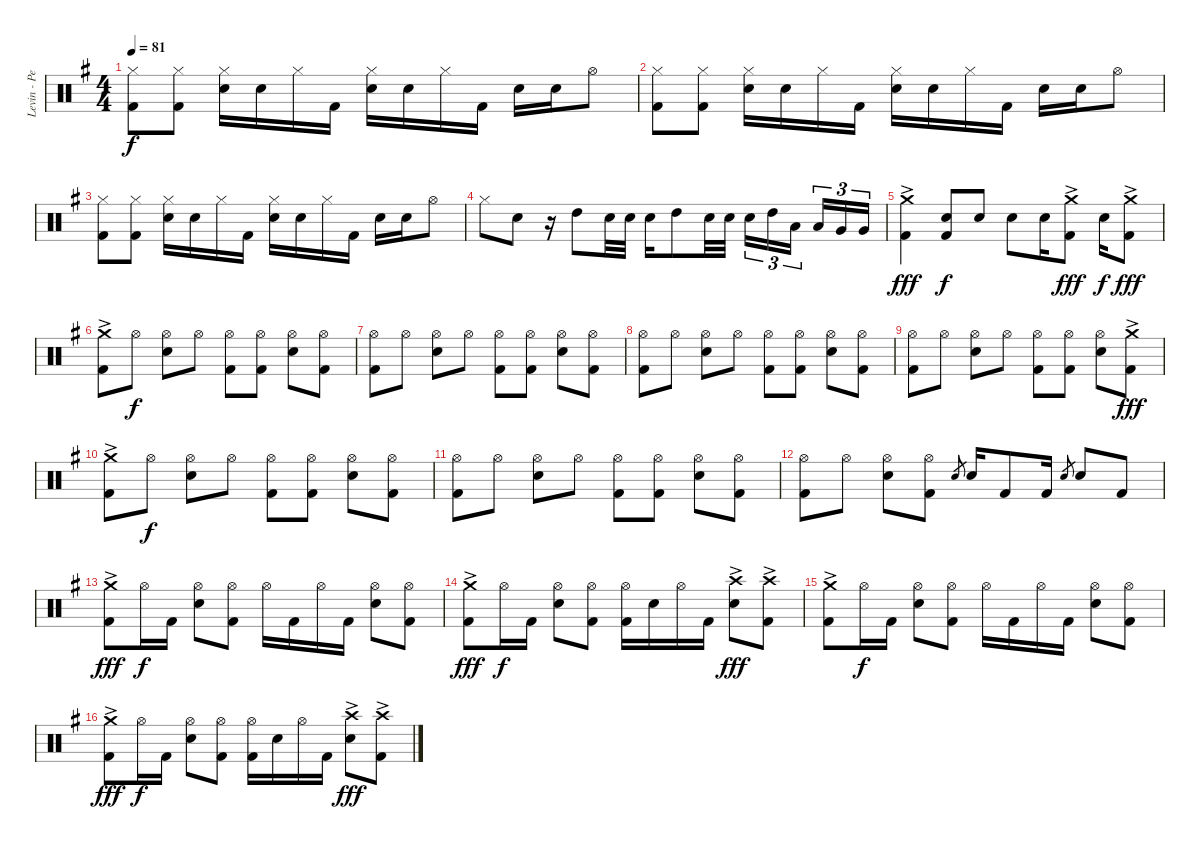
\track ("Levin - Percussion" "Levin - Pe") {instrument percussion}
\staff {score}
\articulation defaults
\ts (4 4)
\tempo 81
\clef neutral
\ks g
("Hi-Hat (closed)" "Kick (hit) 2").8{dy f} ("Hi-Hat (closed)" "Kick (hit) 2").8 ("Hi-Hat (closed)" "Electric Snare (hit)").16 "Electric Snare (hit)".16 "Hi-Hat (closed)".16 "Kick (hit) 2".16 ("Hi-Hat (closed)" "Electric Snare (hit)").16 "Electric Snare (hit)".16 "Hi-Hat (closed)".16 "Kick (hit) 2".16 "Electric Snare (hit)".16 "Electric Snare (hit)".16 "Hi-Hat (open)".8 |
("Hi-Hat (closed)" "Kick (hit) 2").8 ("Hi-Hat (closed)" "Kick (hit) 2").8 ("Hi-Hat (closed)" "Electric Snare (hit)").16 "Electric Snare (hit)".16 "Hi-Hat (closed)".16 "Kick (hit) 2".16 ("Hi-Hat (closed)" "Electric Snare (hit)").16 "Electric Snare (hit)".16 "Hi-Hat (closed)".16 "Kick (hit) 2".16 "Electric Snare (hit)".16 "Electric Snare (hit)".16 "Hi-Hat (open)".8 |
("Hi-Hat (closed)" "Kick (hit) 2").8 ("Hi-Hat (closed)" "Kick (hit) 2").8 ("Hi-Hat (closed)" "Electric Snare (hit)").16 "Electric Snare (hit)".16 "Hi-Hat (closed)".16 "Kick (hit) 2".16 ("Hi-Hat (closed)" "Electric Snare (hit)").16 "Electric Snare (hit)".16 "Hi-Hat (closed)".16 "Kick (hit) 2".16 "Electric Snare (hit)".16 "Electric Snare (hit)".16 "Hi-Hat (open)".8 |
"Hi-Hat (closed)".8 "Electric Snare (hit)".8 r.16 "High Tom (hit)".8 "Electric Snare (hit)".32 "Electric Snare (hit)".32 "Electric Snare (hit)".16 "High Tom (hit)".8 "Electric Snare (hit)".32 "Electric Snare (hit)".32 "Electric Snare (hit)".16{tu (3 2)} "High Tom (hit)".16{tu (3 2)} "Low Tom (hit)".16{tu (3 2)} "Low Tom (hit)".16{tu (3 2)} "Very Low Tom (hit)".16{tu (3 2)} "Very Low Tom (hit)".16{tu (3 2)} |
("Crash medium (hit)"{ac} "Kick (hit) 2").4{dy fff} ("Electric Snare (hit)" "Kick (hit) 2").8{dy f} "Electric Snare (hit)".8 "Electric Snare (hit)".8 "Electric Snare (hit)".16 ("Crash medium (hit)"{ac} "Kick (hit) 2"{ac}).8{dy fff} "Electric Snare (hit)".16{dy f} ("Crash medium (hit)"{ac} "Kick (hit) 2"{ac}).8{dy fff} |
("Crash medium (hit)"{ac} "Kick (hit) 2"{ac}).8 "Hi-Hat (open)".8{dy f} ("Hi-Hat (open)" "Electric Snare (hit)").8 "Hi-Hat (open)".8 ("Hi-Hat (open)" "Kick (hit) 2").8 ("Hi-Hat (open)" "Kick (hit) 2").8 ("Hi-Hat (open)" "Electric Snare (hit)").8 ("Hi-Hat (open)" "Kick (hit) 2").8 |
("Hi-Hat (open)" "Kick (hit) 2").8 "Hi-Hat (open)".8 ("Hi-Hat (open)" "Electric Snare (hit)").8 "Hi-Hat (open)".8 ("Hi-Hat (open)" "Kick (hit) 2").8 ("Hi-Hat (open)" "Kick (hit) 2").8 ("Hi-Hat (open)" "Electric Snare (hit)").8 ("Hi-Hat (open)" "Kick (hit) 2").8 |
("Hi-Hat (open)" "Kick (hit) 2").8 "Hi-Hat (open)".8 ("Hi-Hat (open)" "Electric Snare (hit)").8 "Hi-Hat (open)".8 ("Hi-Hat (open)" "Kick (hit) 2").8 ("Hi-Hat (open)" "Kick (hit) 2").8 ("Hi-Hat (open)" "Electric Snare (hit)").8 ("Hi-Hat (open)" "Kick (hit) 2").8 |
("Hi-Hat (open)" "Kick (hit) 2").8 "Hi-Hat (open)".8 ("Hi-Hat (open)" "Electric Snare (hit)").8 "Hi-Hat (open)".8 ("Hi-Hat (open)" "Kick (hit) 2").8 ("Hi-Hat (open)" "Kick (hit) 2").8 ("Hi-Hat (open)" "Electric Snare (hit)").8 ("Crash medium (hit)"{ac} "Kick (hit) 2").8{dy fff} |
("Crash medium (hit)"{ac} "Kick (hit) 2"{ac}).8 "Hi-Hat (open)".8{dy f} ("Hi-Hat (open)" "Electric Snare (hit)").8 "Hi-Hat (open)".8 ("Hi-Hat (open)" "Kick (hit) 2").8 ("Hi-Hat (open)" "Kick (hit) 2").8 ("Hi-Hat (open)" "Electric Snare (hit)").8 ("Hi-Hat (open)" "Kick (hit) 2").8 |
("Hi-Hat (open)" "Kick (hit) 2").8 "Hi-Hat (open)".8 ("Hi-Hat (open)" "Electric Snare (hit)").8 "Hi-Hat (open)".8 ("Hi-Hat (open)" "Kick (hit) 2").8 ("Hi-Hat (open)" "Kick (hit) 2").8 ("Hi-Hat (open)" "Electric Snare (hit)").8 ("Hi-Hat (open)" "Kick (hit) 2").8 |
("Hi-Hat (open)" "Kick (hit) 2").8 "Hi-Hat (open)".8 ("Hi-Hat (open)" "Electric Snare (hit)").8 ("Hi-Hat (open)" "Kick (hit) 2").8 "Electric Snare (hit)".8{gr} "Electric Snare (hit)".16 "Kick (hit) 2".8 "Kick (hit) 2".16 "Electric Snare (hit)".8{gr} "Electric Snare (hit)".8 "Kick (hit) 2".8 |
("Crash medium (hit)"{ac} "Kick (hit) 2").8{dy fff} "Hi-Hat (open)".16{dy f} "Kick (hit) 2".16 ("Hi-Hat (open)" "Electric Snare (hit)").8 ("Hi-Hat (open)" "Kick (hit) 2").8 "Hi-Hat (open)".16 "Kick (hit) 2".16 "Hi-Hat (open)".16 "Kick (hit) 2".16 ("Hi-Hat (open)" "Electric Snare (hit)").8 ("Hi-Hat (open)" "Kick (hit) 2").8 |
("Crash medium (hit)"{ac} "Kick (hit) 2").8{dy fff} "Hi-Hat (open)".16{dy f} "Kick (hit) 2".16 ("Hi-Hat (open)" "Electric Snare (hit)").8 ("Hi-Hat (open)" "Kick (hit) 2").8 ("Hi-Hat (open)" "Kick (hit) 2").16 "Electric Snare (hit)".16 "Hi-Hat (open)".16 "Kick (hit) 2".16 ("Crash high (hit)"{ac} "Electric Snare (hit)").8{dy fff} ("Crash high (hit)"{ac} "Kick (hit) 2").8 |
("Crash medium (hit)"{ac} "Kick (hit) 2").8 "Hi-Hat (open)".16{dy f} "Kick (hit) 2".16 ("Hi-Hat (open)" "Electric Snare (hit)").8 ("Hi-Hat (open)" "Kick (hit) 2").8 "Hi-Hat (open)".16 "Kick (hit) 2".16 "Hi-Hat (open)".16 "Kick (hit) 2".16 ("Hi-Hat (open)" "Electric Snare (hit)").8 ("Hi-Hat (open)" "Kick (hit) 2").8 |
("Crash medium (hit)"{ac} "Kick (hit) 2").8{dy fff} "Hi-Hat (open)".16{dy f} "Kick (hit) 2".16 ("Hi-Hat (open)" "Electric Snare (hit)").8 ("Hi-Hat (open)" "Kick (hit) 2").8 ("Hi-Hat (open)" "Kick (hit) 2").16 "Electric Snare (hit)".16 "Hi-Hat (open)".16 "Kick (hit) 2".16 ("Crash high (hit)"{ac} "Electric Snare (hit)").8{dy fff} ("Crash high (hit)"{ac} "Kick (hit) 2").8
